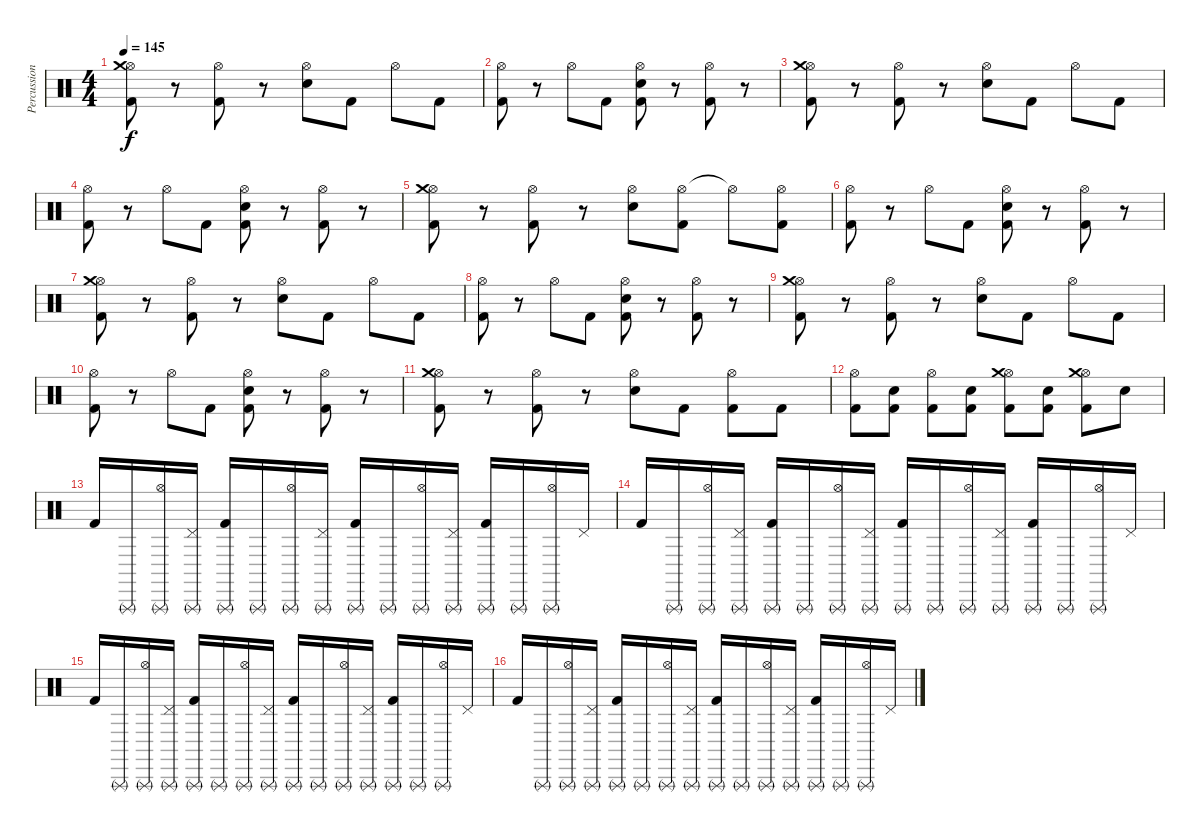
\track ("Percussion" "Percussion") {instrument percussion}
\staff {score}
\articulation defaults
\ts (4 4)
\tempo 145
\clef neutral
\ks c
("Hi-Hat (open)" "Crash medium (hit)" "Kick (hit) 2").8{dy f} r.8 ("Hi-Hat (open)" "Kick (hit) 2").8 r.8 ("Hi-Hat (open)" "Electric Snare (hit)").8 "Kick (hit) 2".8 "Hi-Hat (open)".8 "Kick (hit) 2".8 |
("Hi-Hat (open)" "Kick (hit) 2").8 r.8 "Hi-Hat (open)".8 "Kick (hit) 2".8 ("Hi-Hat (open)" "Electric Snare (hit)" "Kick (hit) 2").8 r.8 ("Hi-Hat (open)" "Kick (hit) 2").8 r.8 |
("Hi-Hat (open)" "Crash medium (hit)" "Kick (hit) 2").8 r.8 ("Hi-Hat (open)" "Kick (hit) 2").8 r.8 ("Hi-Hat (open)" "Electric Snare (hit)").8 "Kick (hit) 2".8 "Hi-Hat (open)".8 "Kick (hit) 2".8 |
("Hi-Hat (open)" "Kick (hit) 2").8 r.8 "Hi-Hat (open)".8 "Kick (hit) 2".8 ("Hi-Hat (open)" "Electric Snare (hit)" "Kick (hit) 2").8 r.8 ("Hi-Hat (open)" "Kick (hit) 2").8 r.8 |
("Hi-Hat (open)" "Crash medium (hit)" "Kick (hit) 2").8 r.8 ("Hi-Hat (open)" "Kick (hit) 2").8 r.8 ("Hi-Hat (open)" "Electric Snare (hit)").8 ("Hi-Hat (open)" "Kick (hit) 2").8 "Hi-Hat (open)"{t}.8 ("Hi-Hat (open)" "Kick (hit) 2").8 |
("Hi-Hat (open)" "Kick (hit) 2").8 r.8 "Hi-Hat (open)".8 "Kick (hit) 2".8 ("Hi-Hat (open)" "Electric Snare (hit)" "Kick (hit) 2").8 r.8 ("Hi-Hat (open)" "Kick (hit) 2").8 r.8 |
("Hi-Hat (open)" "Crash medium (hit)" "Kick (hit) 2").8 r.8 ("Hi-Hat (open)" "Kick (hit) 2").8 r.8 ("Hi-Hat (open)" "Electric Snare (hit)").8 "Kick (hit) 2".8 "Hi-Hat (open)".8 "Kick (hit) 2".8 |
("Hi-Hat (open)" "Kick (hit) 2").8 r.8 "Hi-Hat (open)".8 "Kick (hit) 2".8 ("Hi-Hat (open)" "Electric Snare (hit)" "Kick (hit) 2").8 r.8 ("Hi-Hat (open)" "Kick (hit) 2").8 r.8 |
("Hi-Hat (open)" "Crash medium (hit)" "Kick (hit) 2").8 r.8 ("Hi-Hat (open)" "Kick (hit) 2").8 r.8 ("Hi-Hat (open)" "Electric Snare (hit)").8 "Kick (hit) 2".8 "Hi-Hat (open)".8 "Kick (hit) 2".8 |
("Hi-Hat (open)" "Kick (hit) 2").8 r.8 "Hi-Hat (open)".8 "Kick (hit) 2".8 ("Hi-Hat (open)" "Electric Snare (hit)" "Kick (hit) 2").8 r.8 ("Hi-Hat (open)" "Kick (hit) 2").8 r.8 |
("Hi-Hat (open)" "Crash medium (hit)" "Kick (hit) 2").8 r.8 ("Hi-Hat (open)" "Kick (hit) 2").8 r.8 ("Hi-Hat (open)" "Electric Snare (hit)").8 "Kick (hit) 2".8 ("Hi-Hat (open)" "Kick (hit) 2").8 "Kick (hit) 2".8 |
("Hi-Hat (open)" "Kick (hit) 2").8 ("Electric Snare (hit)" "Kick (hit) 2").8 ("Hi-Hat (open)" "Kick (hit) 2").8 ("Electric Snare (hit)" "Kick (hit) 2").8 ("Hi-Hat (open)" "Crash medium (hit)" "Kick (hit) 2").8 ("Electric Snare (hit)" "Kick (hit) 2").8 ("Hi-Hat (open)" "Crash medium (hit)" "Kick (hit) 2").8 "Electric Snare (hit)".8 |
"Kick (hit) 2".16 "Triangle (rnute)".16 ("Triangle (rnute)" "Hi-Hat (open)").16 ("Triangle (rnute)" "Pedal Hi-Hat (hit)").16 ("Triangle (rnute)" "Kick (hit) 2").16 "Triangle (rnute)".16 ("Triangle (rnute)" "Hi-Hat (open)").16 ("Triangle (rnute)" "Pedal Hi-Hat (hit)").16 ("Triangle (rnute)" "Kick (hit) 2").16 "Triangle (rnute)".16 ("Triangle (rnute)" "Hi-Hat (open)").16 ("Triangle (rnute)" "Pedal Hi-Hat (hit)").16 ("Triangle (rnute)" "Kick (hit) 2").16 "Triangle (rnute)".16 ("Triangle (rnute)" "Hi-Hat (open)").16 "Pedal Hi-Hat (hit)".16 |
"Kick (hit) 2".16 "Triangle (rnute)".16 ("Triangle (rnute)" "Hi-Hat (open)").16 ("Triangle (rnute)" "Pedal Hi-Hat (hit)").16 ("Triangle (rnute)" "Kick (hit) 2").16 "Triangle (rnute)".16 ("Triangle (rnute)" "Hi-Hat (open)").16 ("Triangle (rnute)" "Pedal Hi-Hat (hit)").16 ("Triangle (rnute)" "Kick (hit) 2").16 "Triangle (rnute)".16 ("Triangle (rnute)" "Hi-Hat (open)").16 ("Triangle (rnute)" "Pedal Hi-Hat (hit)").16 ("Triangle (rnute)" "Kick (hit) 2").16 "Triangle (rnute)".16 ("Triangle (rnute)" "Hi-Hat (open)").16 "Pedal Hi-Hat (hit)".16 |
"Kick (hit) 2".16 "Triangle (rnute)".16 ("Triangle (rnute)" "Hi-Hat (open)").16 ("Triangle (rnute)" "Pedal Hi-Hat (hit)").16 ("Triangle (rnute)" "Kick (hit) 2").16 "Triangle (rnute)".16 ("Triangle (rnute)" "Hi-Hat (open)").16 ("Triangle (rnute)" "Pedal Hi-Hat (hit)").16 ("Triangle (rnute)" "Kick (hit) 2").16 "Triangle (rnute)".16 ("Triangle (rnute)" "Hi-Hat (open)").16 ("Triangle (rnute)" "Pedal Hi-Hat (hit)").16 ("Triangle (rnute)" "Kick (hit) 2").16 "Triangle (rnute)".16 ("Triangle (rnute)" "Hi-Hat (open)").16 "Pedal Hi-Hat (hit)".16 |
"Kick (hit) 2".16 "Triangle (rnute)".16 ("Triangle (rnute)" "Hi-Hat (open)").16 ("Triangle (rnute)" "Pedal Hi-Hat (hit)").16 ("Triangle (rnute)" "Kick (hit) 2").16 "Triangle (rnute)".16 ("Triangle (rnute)" "Hi-Hat (open)").16 ("Triangle (rnute)" "Pedal Hi-Hat (hit)").16 ("Triangle (rnute)" "Kick (hit) 2").16 "Triangle (rnute)".16 ("Triangle (rnute)" "Hi-Hat (open)").16 ("Triangle (rnute)" "Pedal Hi-Hat (hit)").16 ("Triangle (rnute)" "Kick (hit) 2").16 "Triangle (rnute)".16 ("Triangle (rnute)" "Hi-Hat (open)").16 "Pedal Hi-Hat (hit)".16
